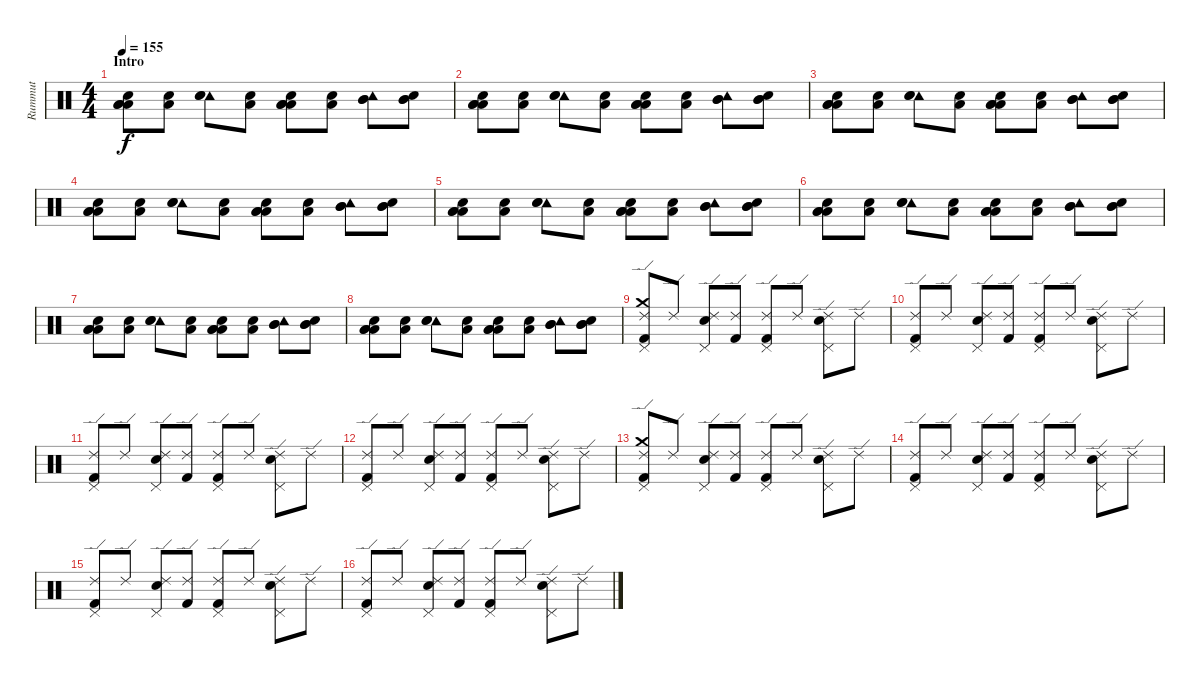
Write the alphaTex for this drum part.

\track ("Rummut" "Rummut") {instrument percussion}
\staff {score}
\articulation defaults
\ts (4 4)
\section ("" "Intro")
\tempo 155
\clef neutral
\ks c
("Low Floor Tom (hit)" "Low Floor Tom (hit)" "Low Floor Tom (hit)" "Snare (hit)"{x}).8{dy f} ("Low Floor Tom (hit)" "Snare (hit)"{x}).8 ("Tambourine (hit)" "Snare (hit) 2" "Snare (hit) 2").8 ("Low Floor Tom (hit)" "Snare (hit)"{x}).8 ("Low Floor Tom (hit)" "Low Floor Tom (hit)" "Low Floor Tom (hit)" "Snare (hit)"{x}).8 ("Low Floor Tom (hit)" "Snare (hit)"{x}).8 ("Mid Tom (hit)" "Mid Tom (hit)" "Tambourine (hit)").8 ("Mid Tom (hit)" "Mid Tom (hit)" "Snare (hit)"{x}).8 |
("Low Floor Tom (hit)" "Low Floor Tom (hit)" "Low Floor Tom (hit)" "Snare (hit)"{x}).8 ("Low Floor Tom (hit)" "Snare (hit)"{x}).8 ("Tambourine (hit)" "Snare (hit) 2" "Snare (hit) 2").8 ("Low Floor Tom (hit)" "Snare (hit)"{x}).8 ("Low Floor Tom (hit)" "Low Floor Tom (hit)" "Low Floor Tom (hit)" "Snare (hit)"{x}).8 ("Low Floor Tom (hit)" "Snare (hit)"{x}).8 ("Mid Tom (hit)" "Mid Tom (hit)" "Tambourine (hit)").8 ("Mid Tom (hit)" "Mid Tom (hit)" "Snare (hit)"{x}).8 |
("Low Floor Tom (hit)" "Low Floor Tom (hit)" "Low Floor Tom (hit)" "Snare (hit)"{x}).8 ("Low Floor Tom (hit)" "Snare (hit)"{x}).8 ("Tambourine (hit)" "Snare (hit) 2" "Snare (hit) 2").8 ("Low Floor Tom (hit)" "Snare (hit)"{x}).8 ("Low Floor Tom (hit)" "Low Floor Tom (hit)" "Low Floor Tom (hit)" "Snare (hit)"{x}).8 ("Low Floor Tom (hit)" "Snare (hit)"{x}).8 ("Mid Tom (hit)" "Mid Tom (hit)" "Tambourine (hit)").8 ("Mid Tom (hit)" "Mid Tom (hit)" "Snare (hit)"{x}).8 |
("Low Floor Tom (hit)" "Low Floor Tom (hit)" "Low Floor Tom (hit)" "Snare (hit)"{x}).8 ("Low Floor Tom (hit)" "Snare (hit)"{x}).8 ("Tambourine (hit)" "Snare (hit) 2" "Snare (hit) 2").8 ("Low Floor Tom (hit)" "Snare (hit)"{x}).8 ("Low Floor Tom (hit)" "Low Floor Tom (hit)" "Low Floor Tom (hit)" "Snare (hit)"{x}).8 ("Low Floor Tom (hit)" "Snare (hit)"{x}).8 ("Mid Tom (hit)" "Mid Tom (hit)" "Tambourine (hit)").8 ("Mid Tom (hit)" "Mid Tom (hit)" "Snare (hit)"{x}).8 |
("Low Floor Tom (hit)" "Low Floor Tom (hit)" "Low Floor Tom (hit)" "Snare (hit)"{x}).8 ("Low Floor Tom (hit)" "Snare (hit)"{x}).8 ("Tambourine (hit)" "Snare (hit) 2" "Snare (hit) 2").8 ("Low Floor Tom (hit)" "Snare (hit)"{x}).8 ("Low Floor Tom (hit)" "Low Floor Tom (hit)" "Low Floor Tom (hit)" "Snare (hit)"{x}).8 ("Low Floor Tom (hit)" "Snare (hit)"{x}).8 ("Mid Tom (hit)" "Mid Tom (hit)" "Tambourine (hit)").8 ("Mid Tom (hit)" "Mid Tom (hit)" "Snare (hit)"{x}).8 |
("Low Floor Tom (hit)" "Low Floor Tom (hit)" "Low Floor Tom (hit)" "Snare (hit)"{x}).8 ("Low Floor Tom (hit)" "Snare (hit)"{x}).8 ("Tambourine (hit)" "Snare (hit) 2" "Snare (hit) 2").8 ("Low Floor Tom (hit)" "Snare (hit)"{x}).8 ("Low Floor Tom (hit)" "Low Floor Tom (hit)" "Low Floor Tom (hit)" "Snare (hit)"{x}).8 ("Low Floor Tom (hit)" "Snare (hit)"{x}).8 ("Mid Tom (hit)" "Mid Tom (hit)" "Tambourine (hit)").8 ("Mid Tom (hit)" "Mid Tom (hit)" "Snare (hit)"{x}).8 |
("Low Floor Tom (hit)" "Low Floor Tom (hit)" "Low Floor Tom (hit)" "Snare (hit)"{x}).8 ("Low Floor Tom (hit)" "Snare (hit)"{x}).8 ("Tambourine (hit)" "Snare (hit) 2" "Snare (hit) 2").8 ("Low Floor Tom (hit)" "Snare (hit)"{x}).8 ("Low Floor Tom (hit)" "Low Floor Tom (hit)" "Low Floor Tom (hit)" "Snare (hit)"{x}).8 ("Low Floor Tom (hit)" "Snare (hit)"{x}).8 ("Mid Tom (hit)" "Mid Tom (hit)" "Tambourine (hit)").8 ("Mid Tom (hit)" "Mid Tom (hit)" "Snare (hit)"{x}).8 |
("Low Floor Tom (hit)" "Low Floor Tom (hit)" "Low Floor Tom (hit)" "Snare (hit)"{x}).8 ("Low Floor Tom (hit)" "Snare (hit)"{x}).8 ("Tambourine (hit)" "Snare (hit) 2" "Snare (hit) 2").8 ("Low Floor Tom (hit)" "Snare (hit)"{x}).8 ("Low Floor Tom (hit)" "Low Floor Tom (hit)" "Low Floor Tom (hit)" "Snare (hit)"{x}).8 ("Low Floor Tom (hit)" "Snare (hit)"{x}).8 ("Mid Tom (hit)" "Mid Tom (hit)" "Tambourine (hit)").8 ("Mid Tom (hit)" "Mid Tom (hit)" "Snare (hit)"{x}).8 |
("Kick (hit) 2" "Ride (edge) 2" "Crash medium (hit)" "Pedal Hi-Hat (hit)").8 "Ride (edge) 2".8 ("Electric Snare (hit)" "Ride (edge) 2" "Pedal Hi-Hat (hit)").8 ("Kick (hit) 2" "Ride (edge) 2").8 ("Kick (hit) 2" "Ride (edge) 2" "Pedal Hi-Hat (hit)").8 "Ride (edge) 2".8 ("Electric Snare (hit)" "Ride (edge) 2" "Pedal Hi-Hat (hit)").8 "Ride (edge) 2".8 |
("Kick (hit) 2" "Ride (edge) 2" "Pedal Hi-Hat (hit)").8 "Ride (edge) 2".8 ("Electric Snare (hit)" "Ride (edge) 2" "Pedal Hi-Hat (hit)").8 ("Kick (hit) 2" "Ride (edge) 2").8 ("Kick (hit) 2" "Ride (edge) 2" "Pedal Hi-Hat (hit)").8 "Ride (edge) 2".8 ("Electric Snare (hit)" "Ride (edge) 2" "Pedal Hi-Hat (hit)").8 "Ride (edge) 2".8 |
("Kick (hit) 2" "Ride (edge) 2" "Pedal Hi-Hat (hit)").8 "Ride (edge) 2".8 ("Electric Snare (hit)" "Ride (edge) 2" "Pedal Hi-Hat (hit)").8 ("Kick (hit) 2" "Ride (edge) 2").8 ("Kick (hit) 2" "Ride (edge) 2" "Pedal Hi-Hat (hit)").8 "Ride (edge) 2".8 ("Electric Snare (hit)" "Ride (edge) 2" "Pedal Hi-Hat (hit)").8 "Ride (edge) 2".8 |
("Kick (hit) 2" "Ride (edge) 2" "Pedal Hi-Hat (hit)").8 "Ride (edge) 2".8 ("Electric Snare (hit)" "Ride (edge) 2" "Pedal Hi-Hat (hit)").8 ("Kick (hit) 2" "Ride (edge) 2").8 ("Kick (hit) 2" "Ride (edge) 2" "Pedal Hi-Hat (hit)").8 "Ride (edge) 2".8 ("Electric Snare (hit)" "Ride (edge) 2" "Pedal Hi-Hat (hit)").8 "Ride (edge) 2".8 |
("Kick (hit) 2" "Ride (edge) 2" "Crash medium (hit)" "Pedal Hi-Hat (hit)").8 "Ride (edge) 2".8 ("Electric Snare (hit)" "Ride (edge) 2" "Pedal Hi-Hat (hit)").8 ("Kick (hit) 2" "Ride (edge) 2").8 ("Kick (hit) 2" "Ride (edge) 2" "Pedal Hi-Hat (hit)").8 "Ride (edge) 2".8 ("Electric Snare (hit)" "Ride (edge) 2" "Pedal Hi-Hat (hit)").8 "Ride (edge) 2".8 |
("Kick (hit) 2" "Ride (edge) 2" "Pedal Hi-Hat (hit)").8 "Ride (edge) 2".8 ("Electric Snare (hit)" "Ride (edge) 2" "Pedal Hi-Hat (hit)").8 ("Kick (hit) 2" "Ride (edge) 2").8 ("Kick (hit) 2" "Ride (edge) 2" "Pedal Hi-Hat (hit)").8 "Ride (edge) 2".8 ("Electric Snare (hit)" "Ride (edge) 2" "Pedal Hi-Hat (hit)").8 "Ride (edge) 2".8 |
("Kick (hit) 2" "Ride (edge) 2" "Pedal Hi-Hat (hit)").8 "Ride (edge) 2".8 ("Electric Snare (hit)" "Ride (edge) 2" "Pedal Hi-Hat (hit)").8 ("Kick (hit) 2" "Ride (edge) 2").8 ("Kick (hit) 2" "Ride (edge) 2" "Pedal Hi-Hat (hit)").8 "Ride (edge) 2".8 ("Electric Snare (hit)" "Ride (edge) 2" "Pedal Hi-Hat (hit)").8 "Ride (edge) 2".8 |
("Kick (hit) 2" "Ride (edge) 2" "Pedal Hi-Hat (hit)").8 "Ride (edge) 2".8 ("Electric Snare (hit)" "Ride (edge) 2" "Pedal Hi-Hat (hit)").8 ("Kick (hit) 2" "Ride (edge) 2").8 ("Kick (hit) 2" "Ride (edge) 2" "Pedal Hi-Hat (hit)").8 "Ride (edge) 2".8 ("Electric Snare (hit)" "Ride (edge) 2" "Pedal Hi-Hat (hit)").8 "Ride (edge) 2".8
